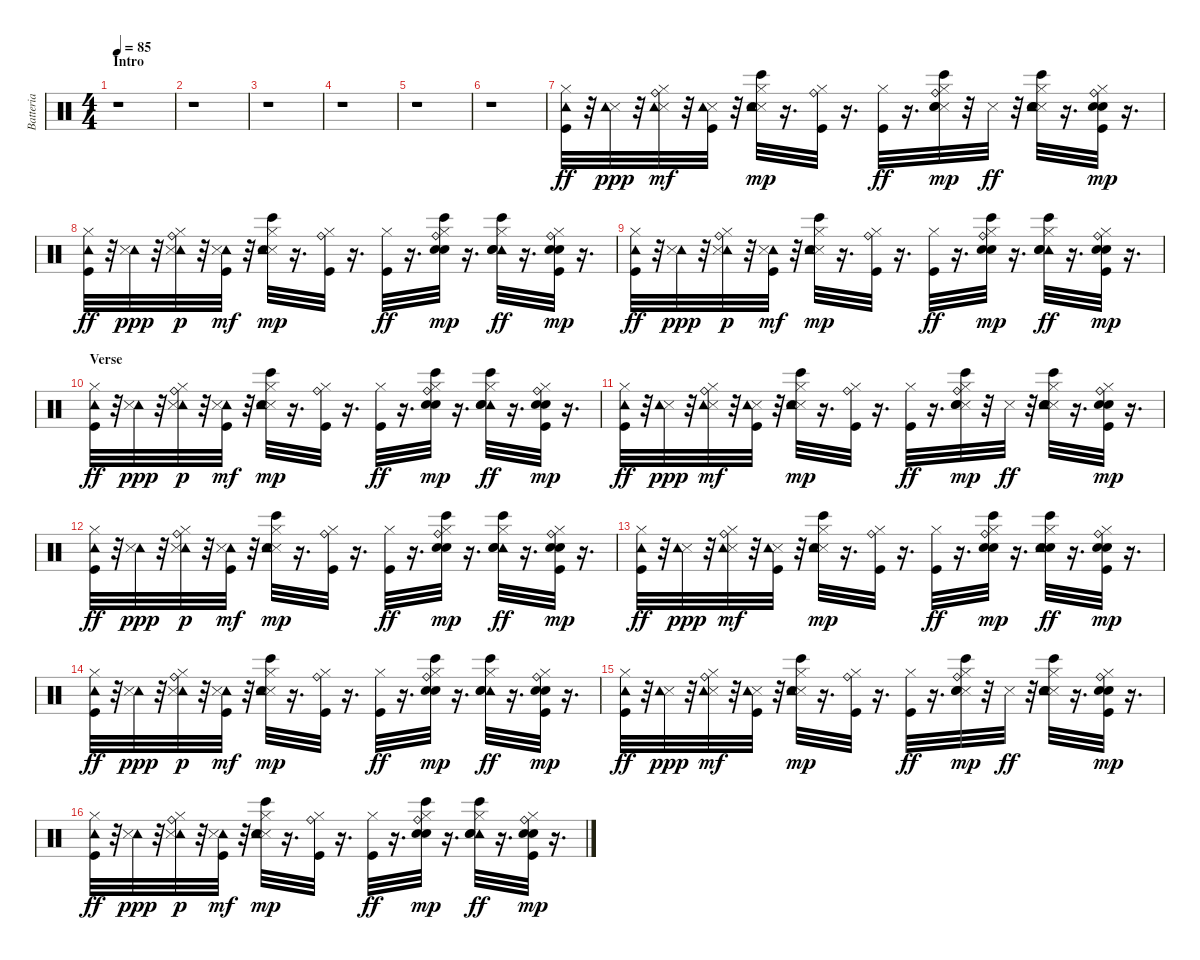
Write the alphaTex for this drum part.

\track ("Batteria" "Batteria") {instrument percussion}
\staff {score}
\articulation defaults
\ts (4 4)
\section ("" "Intro")
\tempo 85
\clef neutral
\ks c
r.1{dy ff} |
r.1 |
r.1 |
r.1 |
r.1 |
r.1 |
("Kick (hit)" "Hi-Hat (closed)" "Tambourine (hit)").32 r.32 ("Metronome (hit)" "Tambourine (hit)").32{dy ppp} r.32 ("Metronome (hit)" "Hi-Hat (closed)" "Ride (bell)" "Tambourine (hit)").32{dy mf} r.32 ("Metronome (hit)" "Kick (hit)" "Tambourine (hit)").32 r.32 ("Bongo High (hit)" "Metronome (hit)" "Snare (hit) 2" "Hi-Hat (closed)" "Tambourine (hit)").32{dy mp} r.16{d} ("Kick (hit)" "Hi-Hat (closed)" "Ride (bell)").32 r.16{d} ("Kick (hit)" "Hi-Hat (closed)").32{dy ff} r.16{d} ("Bongo High (hit)" "Metronome (hit)" "Snare (hit) 2" "Hand Clap (hit)" "Hi-Hat (closed)" "Ride (bell)").32{dy mp} r.32 "Metronome (hit)".32{dy ff} r.32 ("Bongo High (hit)" "Metronome (hit)" "Snare (hit) 2" "Hand Clap (hit)" "Hi-Hat (closed)" "Tambourine (hit)").32 r.16{d} ("Kick (hit)" "Snare (hit) 2" "Hand Clap (hit)" "Hi-Hat (closed)" "Ride (bell)").32{dy mp} r.16{d} |
("Kick (hit)" "Hi-Hat (closed)" "Tambourine (hit)").32{dy ff} r.32 ("Tambourine (hit)" "Metronome (hit)").32{dy ppp} r.32 ("Tambourine (hit)" "Metronome (hit)" "Hi-Hat (closed)" "Ride (bell)").32{dy p} r.32 ("Tambourine (hit)" "Metronome (hit)" "Kick (hit)").32{dy mf} r.32 ("Bongo High (hit)" "Metronome (hit)" "Snare (hit) 2" "Hi-Hat (closed)" "Tambourine (hit)").32{dy mp} r.16{d} ("Kick (hit)" "Hi-Hat (closed)" "Ride (bell)").32 r.16{d} ("Kick (hit)" "Hi-Hat (closed)").32{dy ff} r.16{d} ("Bongo High (hit)" "Snare (hit) 2" "Hand Clap (hit)" "Hi-Hat (closed)" "Ride (bell)").32{dy mp} r.16{d} ("Tambourine (hit)" "Bongo High (hit)" "Snare (hit) 2" "Hand Clap (hit)" "Hi-Hat (closed)").32{dy ff} r.16{d} ("Kick (hit)" "Snare (hit) 2" "Hand Clap (hit)" "Hi-Hat (closed)" "Ride (bell)").32{dy mp} r.16{d} |
("Kick (hit)" "Hi-Hat (closed)" "Tambourine (hit)").32{dy ff} r.32 ("Tambourine (hit)" "Metronome (hit)").32{dy ppp} r.32 ("Tambourine (hit)" "Metronome (hit)" "Hi-Hat (closed)" "Ride (bell)").32{dy p} r.32 ("Tambourine (hit)" "Metronome (hit)" "Kick (hit)").32{dy mf} r.32 ("Bongo High (hit)" "Metronome (hit)" "Snare (hit) 2" "Hi-Hat (closed)" "Tambourine (hit)").32{dy mp} r.16{d} ("Kick (hit)" "Hi-Hat (closed)" "Ride (bell)").32 r.16{d} ("Kick (hit)" "Hi-Hat (closed)").32{dy ff} r.16{d} ("Bongo High (hit)" "Snare (hit) 2" "Hand Clap (hit)" "Hi-Hat (closed)" "Ride (bell)").32{dy mp} r.16{d} ("Tambourine (hit)" "Bongo High (hit)" "Snare (hit) 2" "Hand Clap (hit)" "Hi-Hat (closed)").32{dy ff} r.16{d} ("Kick (hit)" "Snare (hit) 2" "Hand Clap (hit)" "Hi-Hat (closed)" "Ride (bell)").32{dy mp} r.16{d} |
\section ("" "Verse")
("Kick (hit)" "Hi-Hat (closed)" "Tambourine (hit)").32{dy ff} r.32 ("Tambourine (hit)" "Metronome (hit)").32{dy ppp} r.32 ("Tambourine (hit)" "Metronome (hit)" "Hi-Hat (closed)" "Ride (bell)").32{dy p} r.32 ("Tambourine (hit)" "Metronome (hit)" "Kick (hit)").32{dy mf} r.32 ("Bongo High (hit)" "Metronome (hit)" "Snare (hit) 2" "Hi-Hat (closed)" "Tambourine (hit)").32{dy mp} r.16{d} ("Kick (hit)" "Hi-Hat (closed)" "Ride (bell)").32 r.16{d} ("Kick (hit)" "Hi-Hat (closed)").32{dy ff} r.16{d} ("Bongo High (hit)" "Snare (hit) 2" "Hand Clap (hit)" "Hi-Hat (closed)" "Ride (bell)").32{dy mp} r.16{d} ("Tambourine (hit)" "Bongo High (hit)" "Snare (hit) 2" "Hand Clap (hit)" "Hi-Hat (closed)").32{dy ff} r.16{d} ("Kick (hit)" "Snare (hit) 2" "Hand Clap (hit)" "Hi-Hat (closed)" "Ride (bell)").32{dy mp} r.16{d} |
("Kick (hit)" "Hi-Hat (closed)" "Tambourine (hit)").32{dy ff} r.32 ("Metronome (hit)" "Tambourine (hit)").32{dy ppp} r.32 ("Metronome (hit)" "Hi-Hat (closed)" "Ride (bell)" "Tambourine (hit)").32{dy mf} r.32 ("Metronome (hit)" "Kick (hit)" "Tambourine (hit)").32 r.32 ("Bongo High (hit)" "Metronome (hit)" "Snare (hit) 2" "Hi-Hat (closed)" "Tambourine (hit)").32{dy mp} r.16{d} ("Kick (hit)" "Hi-Hat (closed)" "Ride (bell)").32 r.16{d} ("Kick (hit)" "Hi-Hat (closed)").32{dy ff} r.16{d} ("Bongo High (hit)" "Metronome (hit)" "Snare (hit) 2" "Hand Clap (hit)" "Hi-Hat (closed)" "Ride (bell)").32{dy mp} r.32 "Metronome (hit)".32{dy ff} r.32 ("Bongo High (hit)" "Metronome (hit)" "Snare (hit) 2" "Hand Clap (hit)" "Hi-Hat (closed)" "Tambourine (hit)").32 r.16{d} ("Kick (hit)" "Snare (hit) 2" "Hand Clap (hit)" "Hi-Hat (closed)" "Ride (bell)").32{dy mp} r.16{d} |
("Kick (hit)" "Hi-Hat (closed)" "Tambourine (hit)").32{dy ff} r.32 ("Tambourine (hit)" "Metronome (hit)").32{dy ppp} r.32 ("Tambourine (hit)" "Metronome (hit)" "Hi-Hat (closed)" "Ride (bell)").32{dy p} r.32 ("Tambourine (hit)" "Metronome (hit)" "Kick (hit)").32{dy mf} r.32 ("Bongo High (hit)" "Metronome (hit)" "Snare (hit) 2" "Hi-Hat (closed)" "Tambourine (hit)").32{dy mp} r.16{d} ("Kick (hit)" "Hi-Hat (closed)" "Ride (bell)").32 r.16{d} ("Kick (hit)" "Hi-Hat (closed)").32{dy ff} r.16{d} ("Bongo High (hit)" "Snare (hit) 2" "Hand Clap (hit)" "Hi-Hat (closed)" "Ride (bell)").32{dy mp} r.16{d} ("Tambourine (hit)" "Bongo High (hit)" "Snare (hit) 2" "Hand Clap (hit)" "Hi-Hat (closed)").32{dy ff} r.16{d} ("Kick (hit)" "Snare (hit) 2" "Hand Clap (hit)" "Hi-Hat (closed)" "Ride (bell)").32{dy mp} r.16{d} |
("Kick (hit)" "Hi-Hat (closed)" "Tambourine (hit)").32{dy ff} r.32 ("Metronome (hit)" "Tambourine (hit)").32{dy ppp} r.32 ("Metronome (hit)" "Hi-Hat (closed)" "Ride (bell)" "Tambourine (hit)").32{dy mf} r.32 ("Metronome (hit)" "Kick (hit)" "Tambourine (hit)").32 r.32 ("Bongo High (hit)" "Metronome (hit)" "Snare (hit) 2" "Hi-Hat (closed)" "Tambourine (hit)").32{dy mp} r.16{d} ("Kick (hit)" "Hi-Hat (closed)" "Ride (bell)").32 r.16{d} ("Kick (hit)" "Hi-Hat (closed)").32{dy ff} r.16{d} ("Bongo High (hit)" "Snare (hit) 2" "Hand Clap (hit)" "Hi-Hat (closed)" "Ride (bell)").32{dy mp} r.16{d} ("Bongo High (hit)" "Snare (hit) 2" "Hand Clap (hit)" "Hi-Hat (closed)" "Tambourine (hit)").32{dy ff} r.16{d} ("Kick (hit)" "Snare (hit) 2" "Hand Clap (hit)" "Hi-Hat (closed)" "Ride (bell)").32{dy mp} r.16{d} |
("Kick (hit)" "Hi-Hat (closed)" "Tambourine (hit)").32{dy ff} r.32 ("Tambourine (hit)" "Metronome (hit)").32{dy ppp} r.32 ("Tambourine (hit)" "Metronome (hit)" "Hi-Hat (closed)" "Ride (bell)").32{dy p} r.32 ("Tambourine (hit)" "Metronome (hit)" "Kick (hit)").32{dy mf} r.32 ("Bongo High (hit)" "Metronome (hit)" "Snare (hit) 2" "Hi-Hat (closed)" "Tambourine (hit)").32{dy mp} r.16{d} ("Kick (hit)" "Hi-Hat (closed)" "Ride (bell)").32 r.16{d} ("Kick (hit)" "Hi-Hat (closed)").32{dy ff} r.16{d} ("Bongo High (hit)" "Snare (hit) 2" "Hand Clap (hit)" "Hi-Hat (closed)" "Ride (bell)").32{dy mp} r.16{d} ("Tambourine (hit)" "Bongo High (hit)" "Snare (hit) 2" "Hand Clap (hit)" "Hi-Hat (closed)").32{dy ff} r.16{d} ("Kick (hit)" "Snare (hit) 2" "Hand Clap (hit)" "Hi-Hat (closed)" "Ride (bell)").32{dy mp} r.16{d} |
("Kick (hit)" "Hi-Hat (closed)" "Tambourine (hit)").32{dy ff} r.32 ("Metronome (hit)" "Tambourine (hit)").32{dy ppp} r.32 ("Metronome (hit)" "Hi-Hat (closed)" "Ride (bell)" "Tambourine (hit)").32{dy mf} r.32 ("Metronome (hit)" "Kick (hit)" "Tambourine (hit)").32 r.32 ("Bongo High (hit)" "Metronome (hit)" "Snare (hit) 2" "Hi-Hat (closed)" "Tambourine (hit)").32{dy mp} r.16{d} ("Kick (hit)" "Hi-Hat (closed)" "Ride (bell)").32 r.16{d} ("Kick (hit)" "Hi-Hat (closed)").32{dy ff} r.16{d} ("Bongo High (hit)" "Metronome (hit)" "Snare (hit) 2" "Hand Clap (hit)" "Hi-Hat (closed)" "Ride (bell)").32{dy mp} r.32 "Metronome (hit)".32{dy ff} r.32 ("Bongo High (hit)" "Metronome (hit)" "Snare (hit) 2" "Hand Clap (hit)" "Hi-Hat (closed)" "Tambourine (hit)").32 r.16{d} ("Kick (hit)" "Snare (hit) 2" "Hand Clap (hit)" "Hi-Hat (closed)" "Ride (bell)").32{dy mp} r.16{d} |
("Kick (hit)" "Hi-Hat (closed)" "Tambourine (hit)").32{dy ff} r.32 ("Tambourine (hit)" "Metronome (hit)").32{dy ppp} r.32 ("Tambourine (hit)" "Metronome (hit)" "Hi-Hat (closed)" "Ride (bell)").32{dy p} r.32 ("Tambourine (hit)" "Metronome (hit)" "Kick (hit)").32{dy mf} r.32 ("Bongo High (hit)" "Metronome (hit)" "Snare (hit) 2" "Hi-Hat (closed)" "Tambourine (hit)").32{dy mp} r.16{d} ("Kick (hit)" "Hi-Hat (closed)" "Ride (bell)").32 r.16{d} ("Kick (hit)" "Hi-Hat (closed)").32{dy ff} r.16{d} ("Bongo High (hit)" "Snare (hit) 2" "Hand Clap (hit)" "Hi-Hat (closed)" "Ride (bell)").32{dy mp} r.16{d} ("Tambourine (hit)" "Bongo High (hit)" "Snare (hit) 2" "Hand Clap (hit)" "Hi-Hat (closed)").32{dy ff} r.16{d} ("Kick (hit)" "Snare (hit) 2" "Hand Clap (hit)" "Hi-Hat (closed)" "Ride (bell)").32{dy mp} r.16{d}
